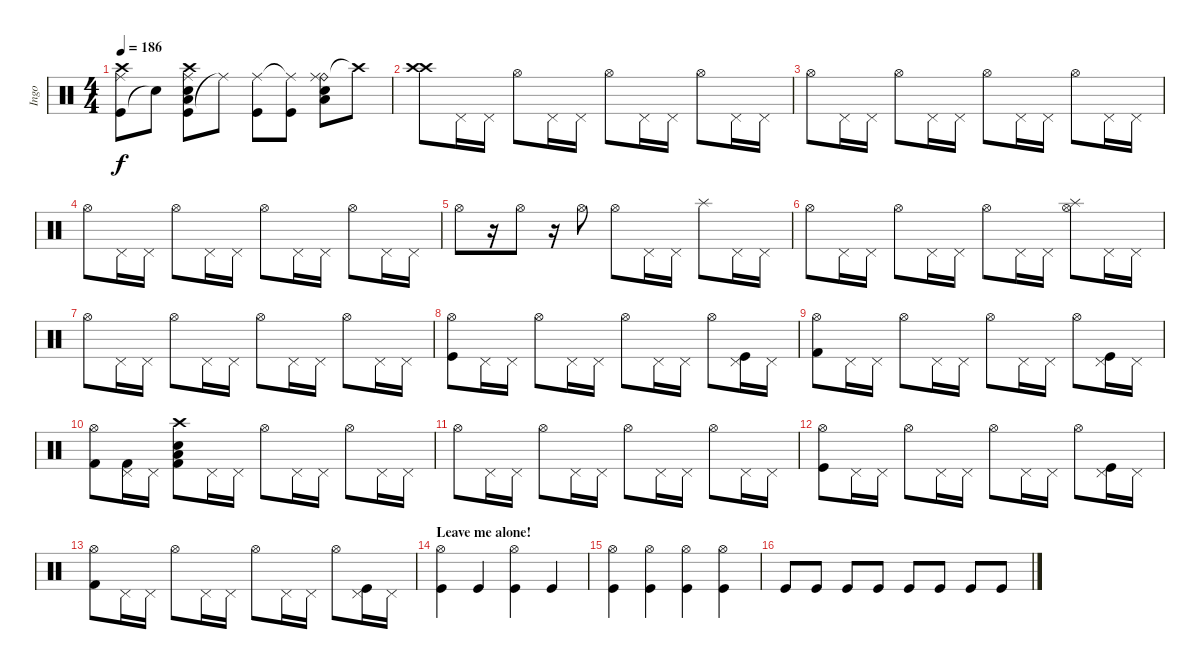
\track ("Ingo" "Ingo") {instrument percussion}
\staff {score}
\articulation defaults
\ts (4 4)
\tempo 186
\clef neutral
\ks c
("Kick (hit)" "Ride (middle)" "Crash high (hit)").8{dy f} "Snare (hit)"{t}.8 ("Kick (hit)" "Low Tom (hit)" "Snare (hit) 2" "Ride (middle)" "Crash high (hit)").8 "Ride (middle)"{t}.8 ("Kick (hit)" "Ride (middle)").8 ("Kick (hit)" "Ride (middle)"{t}).8 ("Ride (bell)" "Low Tom (hit)" "Snare (hit) 2" "Ride (middle)").8 "Crash high (hit)"{t}.8 |
("Crash high (hit)" "Crash high (hit)").8 "Pedal Hi-Hat (hit)".16 "Pedal Hi-Hat (hit)".16 "Hi-Hat (open)".8 "Pedal Hi-Hat (hit)".16 "Pedal Hi-Hat (hit)".16 "Hi-Hat (open)".8 "Pedal Hi-Hat (hit)".16 "Pedal Hi-Hat (hit)".16 "Hi-Hat (open)".8 "Pedal Hi-Hat (hit)".16 "Pedal Hi-Hat (hit)".16 |
"Hi-Hat (open)".8 "Pedal Hi-Hat (hit)".16 "Pedal Hi-Hat (hit)".16 "Hi-Hat (open)".8 "Pedal Hi-Hat (hit)".16 "Pedal Hi-Hat (hit)".16 "Hi-Hat (open)".8 "Pedal Hi-Hat (hit)".16 "Pedal Hi-Hat (hit)".16 "Hi-Hat (open)".8 "Pedal Hi-Hat (hit)".16 "Pedal Hi-Hat (hit)".16 |
"Hi-Hat (open)".8 "Pedal Hi-Hat (hit)".16 "Pedal Hi-Hat (hit)".16 "Hi-Hat (open)".8 "Pedal Hi-Hat (hit)".16 "Pedal Hi-Hat (hit)".16 "Hi-Hat (open)".8 "Pedal Hi-Hat (hit)".16 "Pedal Hi-Hat (hit)".16 "Hi-Hat (open)".8 "Pedal Hi-Hat (hit)".16 "Pedal Hi-Hat (hit)".16 |
"Hi-Hat (open)".8 r.16 "Hi-Hat (open)".8 r.16 "Hi-Hat (open)".8 "Hi-Hat (open)".8 "Pedal Hi-Hat (hit)".16 "Pedal Hi-Hat (hit)".16 "Splash (hit)".8 "Pedal Hi-Hat (hit)".16 "Pedal Hi-Hat (hit)".16 |
"Hi-Hat (open)".8 "Pedal Hi-Hat (hit)".16 "Pedal Hi-Hat (hit)".16 "Hi-Hat (open)".8 "Pedal Hi-Hat (hit)".16 "Pedal Hi-Hat (hit)".16 "Hi-Hat (open)".8 "Pedal Hi-Hat (hit)".16 "Pedal Hi-Hat (hit)".16 ("Hi-Hat (open)" "Splash (hit)").8 "Pedal Hi-Hat (hit)".16 "Pedal Hi-Hat (hit)".16 |
"Hi-Hat (open)".8 "Pedal Hi-Hat (hit)".16 "Pedal Hi-Hat (hit)".16 "Hi-Hat (open)".8 "Pedal Hi-Hat (hit)".16 "Pedal Hi-Hat (hit)".16 "Hi-Hat (open)".8 "Pedal Hi-Hat (hit)".16 "Pedal Hi-Hat (hit)".16 "Hi-Hat (open)".8 "Pedal Hi-Hat (hit)".16 "Pedal Hi-Hat (hit)".16 |
("Kick (hit)" "Hi-Hat (open)").8 "Pedal Hi-Hat (hit)".16 "Pedal Hi-Hat (hit)".16 "Hi-Hat (open)".8 "Pedal Hi-Hat (hit)".16 "Pedal Hi-Hat (hit)".16 "Hi-Hat (open)".8 "Pedal Hi-Hat (hit)".16 "Pedal Hi-Hat (hit)".16 "Hi-Hat (open)".8 ("Kick (hit)" "Pedal Hi-Hat (hit)").16 "Pedal Hi-Hat (hit)".16 |
("Kick (hit) 2" "Hi-Hat (open)").8 "Pedal Hi-Hat (hit)".16 "Pedal Hi-Hat (hit)".16 "Hi-Hat (open)".8 "Pedal Hi-Hat (hit)".16 "Pedal Hi-Hat (hit)".16 "Hi-Hat (open)".8 "Pedal Hi-Hat (hit)".16 "Pedal Hi-Hat (hit)".16 "Hi-Hat (open)".8 ("Kick (hit)" "Pedal Hi-Hat (hit)").16 "Pedal Hi-Hat (hit)".16 |
("Kick (hit) 2" "Hi-Hat (open)").8 ("Kick (hit) 2" "Pedal Hi-Hat (hit)").16 "Pedal Hi-Hat (hit)".16 ("Kick (hit) 2" "Snare (hit) 2" "Low Tom (hit)" "Crash high (hit)").8 "Pedal Hi-Hat (hit)".16 "Pedal Hi-Hat (hit)".16 "Hi-Hat (open)".8 "Pedal Hi-Hat (hit)".16 "Pedal Hi-Hat (hit)".16 "Hi-Hat (open)".8 "Pedal Hi-Hat (hit)".16 "Pedal Hi-Hat (hit)".16 |
"Hi-Hat (open)".8 "Pedal Hi-Hat (hit)".16 "Pedal Hi-Hat (hit)".16 "Hi-Hat (open)".8 "Pedal Hi-Hat (hit)".16 "Pedal Hi-Hat (hit)".16 "Hi-Hat (open)".8 "Pedal Hi-Hat (hit)".16 "Pedal Hi-Hat (hit)".16 "Hi-Hat (open)".8 "Pedal Hi-Hat (hit)".16 "Pedal Hi-Hat (hit)".16 |
("Kick (hit)" "Hi-Hat (open)").8 "Pedal Hi-Hat (hit)".16 "Pedal Hi-Hat (hit)".16 "Hi-Hat (open)".8 "Pedal Hi-Hat (hit)".16 "Pedal Hi-Hat (hit)".16 "Hi-Hat (open)".8 "Pedal Hi-Hat (hit)".16 "Pedal Hi-Hat (hit)".16 "Hi-Hat (open)".8 ("Kick (hit)" "Pedal Hi-Hat (hit)").16 "Pedal Hi-Hat (hit)".16 |
("Kick (hit) 2" "Hi-Hat (open)").8 "Pedal Hi-Hat (hit)".16 "Pedal Hi-Hat (hit)".16 "Hi-Hat (open)".8 "Pedal Hi-Hat (hit)".16 "Pedal Hi-Hat (hit)".16 "Hi-Hat (open)".8 "Pedal Hi-Hat (hit)".16 "Pedal Hi-Hat (hit)".16 "Hi-Hat (open)".8 ("Kick (hit)" "Pedal Hi-Hat (hit)").16 "Pedal Hi-Hat (hit)".16 |
\section ("" "Leave me alone!")
("Kick (hit)" "Hi-Hat (open)").4 "Kick (hit)".4 ("Kick (hit)" "Hi-Hat (open)").4 "Kick (hit)".4 |
("Kick (hit)" "Hi-Hat (open)").4 ("Kick (hit)" "Hi-Hat (open)").4 ("Kick (hit)" "Hi-Hat (open)").4 ("Kick (hit)" "Hi-Hat (open)").4 |
"Kick (hit)".8 "Kick (hit)".8 "Kick (hit)".8 "Kick (hit)".8 "Kick (hit)".8 "Kick (hit)".8 "Kick (hit)".8 "Kick (hit)".8
